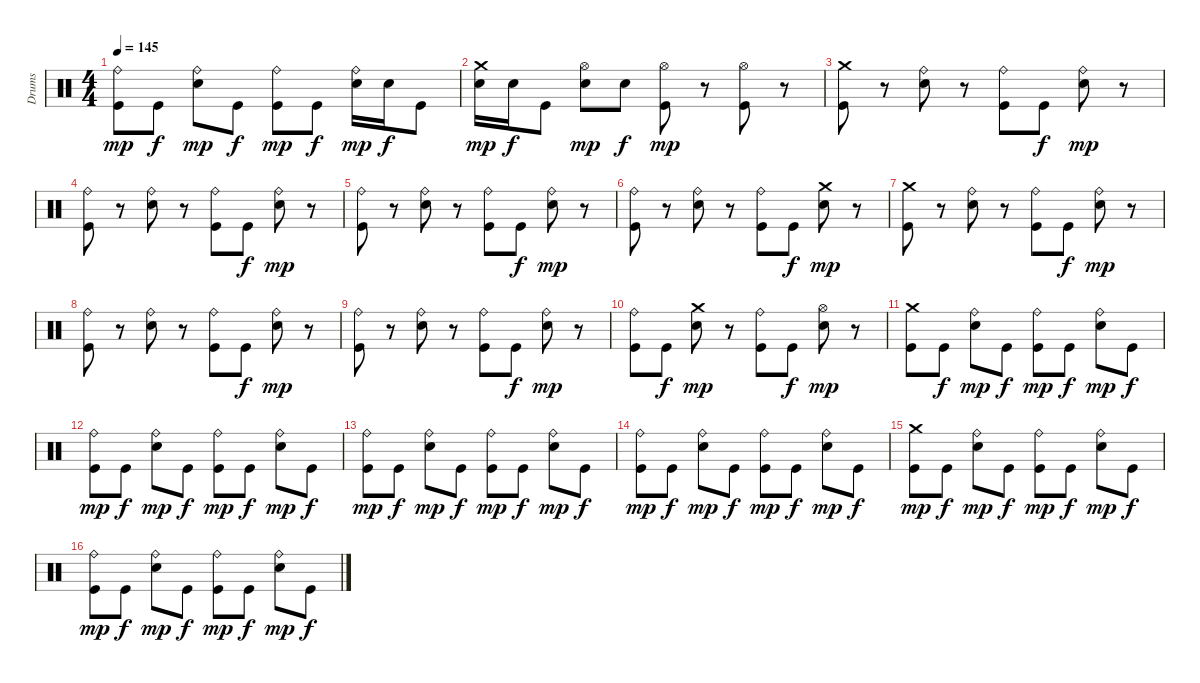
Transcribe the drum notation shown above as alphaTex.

\track ("Drums" "Drums") {instrument percussion}
\staff {score}
\articulation defaults
\ts (4 4)
\tempo 145
\clef neutral
\ks c
("Kick (hit)" "Ride (bell)").8{dy mp} "Kick (hit)".8{dy f} ("Snare (hit) 2" "Ride (bell)").8{dy mp} "Kick (hit)".8{dy f} ("Kick (hit)" "Ride (bell)").8{dy mp} "Kick (hit)".8{dy f} ("Snare (hit) 2" "Ride (bell)").16{dy mp} "Snare (hit) 2".16{dy f} "Kick (hit)".8 |
("Snare (hit) 2" "Crash medium (hit)").16{dy mp} "Snare (hit) 2".16{dy f} "Kick (hit)".8 ("Snare (hit) 2" "Hi-Hat (open)").8{dy mp} "Snare (hit) 2".8{dy f} ("Kick (hit)" "Hi-Hat (open)").8{dy mp} r.8 ("Hi-Hat (open)" "Kick (hit)").8 r.8 |
("Kick (hit)" "Crash medium (hit)").8 r.8 ("Snare (hit) 2" "Ride (bell)").8 r.8 ("Kick (hit)" "Ride (bell)").8 "Kick (hit)".8{dy f} ("Snare (hit) 2" "Ride (bell)").8{dy mp} r.8 |
("Kick (hit)" "Ride (bell)").8 r.8 ("Snare (hit) 2" "Ride (bell)").8 r.8 ("Kick (hit)" "Ride (bell)").8 "Kick (hit)".8{dy f} ("Snare (hit) 2" "Ride (bell)").8{dy mp} r.8 |
("Kick (hit)" "Ride (bell)").8 r.8 ("Snare (hit) 2" "Ride (bell)").8 r.8 ("Kick (hit)" "Ride (bell)").8 "Kick (hit)".8{dy f} ("Snare (hit) 2" "Ride (bell)").8{dy mp} r.8 |
("Kick (hit)" "Ride (bell)").8 r.8 ("Snare (hit) 2" "Ride (bell)").8 r.8 ("Kick (hit)" "Ride (bell)").8 "Kick (hit)".8{dy f} ("Snare (hit) 2" "Crash medium (hit)").8{dy mp} r.8 |
("Kick (hit)" "Crash medium (hit)").8 r.8 ("Snare (hit) 2" "Ride (bell)").8 r.8 ("Kick (hit)" "Ride (bell)").8 "Kick (hit)".8{dy f} ("Snare (hit) 2" "Ride (bell)").8{dy mp} r.8 |
("Kick (hit)" "Ride (bell)").8 r.8 ("Snare (hit) 2" "Ride (bell)").8 r.8 ("Kick (hit)" "Ride (bell)").8 "Kick (hit)".8{dy f} ("Snare (hit) 2" "Ride (bell)").8{dy mp} r.8 |
("Kick (hit)" "Ride (bell)").8 r.8 ("Snare (hit) 2" "Ride (bell)").8 r.8 ("Kick (hit)" "Ride (bell)").8 "Kick (hit)".8{dy f} ("Snare (hit) 2" "Ride (bell)").8{dy mp} r.8 |
("Kick (hit)" "Ride (bell)").8 "Kick (hit)".8{dy f} ("Snare (hit) 2" "Crash medium (hit)").8{dy mp} r.8 ("Kick (hit)" "Ride (bell)").8 "Kick (hit)".8{dy f} ("Snare (hit) 2" "Hi-Hat (open)").8{dy mp} r.8 |
("Kick (hit)" "Crash medium (hit)").8 "Kick (hit)".8{dy f} ("Snare (hit) 2" "Ride (bell)").8{dy mp} "Kick (hit)".8{dy f} ("Kick (hit)" "Ride (bell)").8{dy mp} "Kick (hit)".8{dy f} ("Snare (hit) 2" "Ride (bell)").8{dy mp} "Kick (hit)".8{dy f} |
("Kick (hit)" "Ride (bell)").8{dy mp} "Kick (hit)".8{dy f} ("Snare (hit) 2" "Ride (bell)").8{dy mp} "Kick (hit)".8{dy f} ("Kick (hit)" "Ride (bell)").8{dy mp} "Kick (hit)".8{dy f} ("Snare (hit) 2" "Ride (bell)").8{dy mp} "Kick (hit)".8{dy f} |
("Kick (hit)" "Ride (bell)").8{dy mp} "Kick (hit)".8{dy f} ("Snare (hit) 2" "Ride (bell)").8{dy mp} "Kick (hit)".8{dy f} ("Kick (hit)" "Ride (bell)").8{dy mp} "Kick (hit)".8{dy f} ("Snare (hit) 2" "Ride (bell)").8{dy mp} "Kick (hit)".8{dy f} |
("Kick (hit)" "Ride (bell)").8{dy mp} "Kick (hit)".8{dy f} ("Snare (hit) 2" "Ride (bell)").8{dy mp} "Kick (hit)".8{dy f} ("Kick (hit)" "Ride (bell)").8{dy mp} "Kick (hit)".8{dy f} ("Snare (hit) 2" "Ride (bell)").8{dy mp} "Kick (hit)".8{dy f} |
("Kick (hit)" "Crash medium (hit)").8{dy mp} "Kick (hit)".8{dy f} ("Snare (hit) 2" "Ride (bell)").8{dy mp} "Kick (hit)".8{dy f} ("Kick (hit)" "Ride (bell)").8{dy mp} "Kick (hit)".8{dy f} ("Snare (hit) 2" "Ride (bell)").8{dy mp} "Kick (hit)".8{dy f} |
("Kick (hit)" "Ride (bell)").8{dy mp} "Kick (hit)".8{dy f} ("Snare (hit) 2" "Ride (bell)").8{dy mp} "Kick (hit)".8{dy f} ("Kick (hit)" "Ride (bell)").8{dy mp} "Kick (hit)".8{dy f} ("Snare (hit) 2" "Ride (bell)").8{dy mp} "Kick (hit)".8{dy f}
